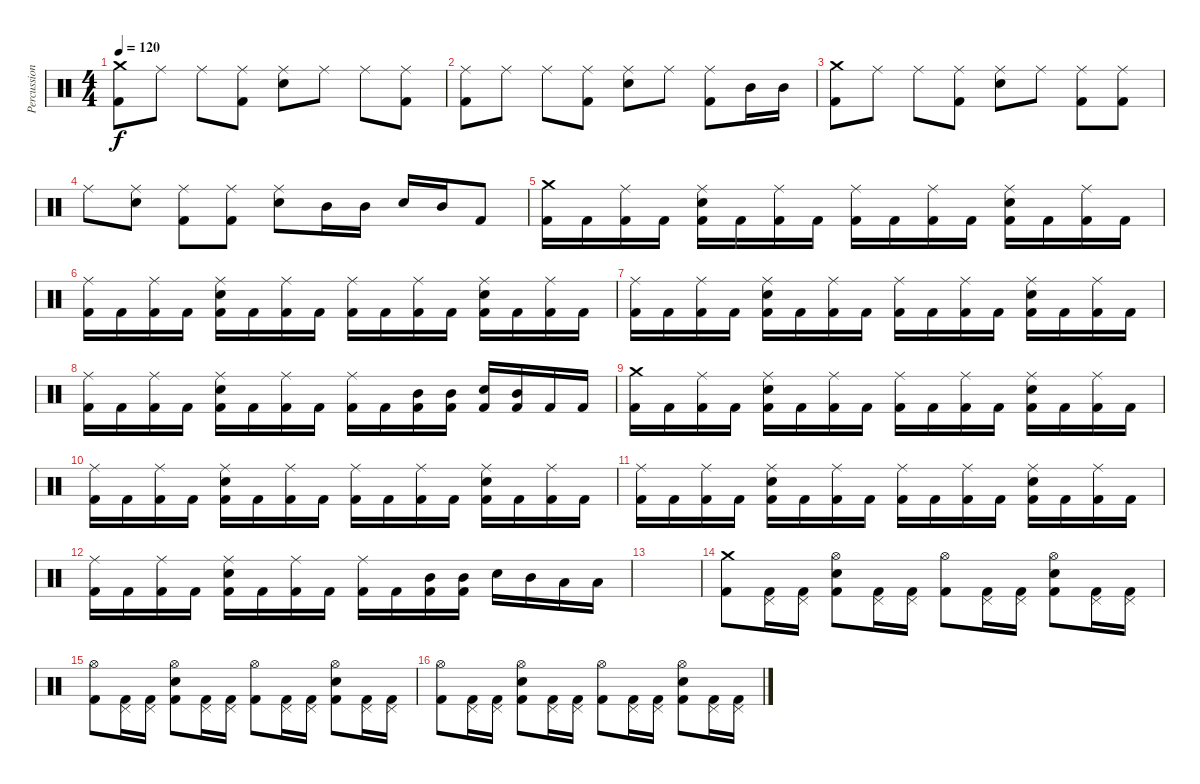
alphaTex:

\track ("Percussions" "Percussion") {instrument percussion}
\staff {score}
\articulation defaults
\ts (4 4)
\tempo 120
\clef neutral
\ks c
("Crash medium (hit)" "Kick (hit) 2").8{dy f} "Ride (middle)".8 "Ride (middle)".8 ("Ride (middle)" "Kick (hit) 2").8 ("Ride (middle)" "Electric Snare (hit)").8 "Ride (middle)".8 "Ride (middle)".8 ("Ride (middle)" "Kick (hit) 2").8 |
("Ride (middle)" "Kick (hit) 2").8 "Ride (middle)".8 "Ride (middle)".8 ("Ride (middle)" "Kick (hit) 2").8 ("Ride (middle)" "Electric Snare (hit)").8 "Ride (middle)".8 ("Ride (middle)" "Kick (hit) 2").8 "Mid Tom (hit)".16 "Mid Tom (hit)".16 |
("Crash medium (hit)" "Kick (hit) 2").8 "Ride (middle)".8 "Ride (middle)".8 ("Ride (middle)" "Kick (hit) 2").8 ("Ride (middle)" "Electric Snare (hit)").8 "Ride (middle)".8 ("Ride (middle)" "Kick (hit) 2").8 ("Ride (middle)" "Kick (hit) 2").8 |
"Ride (middle)".8 ("Ride (middle)" "Electric Snare (hit)").8 ("Ride (middle)" "Kick (hit) 2").8 ("Ride (middle)" "Kick (hit) 2").8 ("Ride (middle)" "Electric Snare (hit)").8 "Mid Tom (hit)".16 "Mid Tom (hit)".16 "Electric Snare (hit)".16 "Mid Tom (hit)".16 "Kick (hit) 2".8 |
("Kick (hit) 2" "Crash medium (hit)").16 "Kick (hit) 2".16 ("Kick (hit) 2" "Ride (middle)").16 "Kick (hit) 2".16 ("Kick (hit) 2" "Electric Snare (hit)" "Ride (middle)").16 "Kick (hit) 2".16 ("Kick (hit) 2" "Ride (middle)").16 "Kick (hit) 2".16 ("Kick (hit) 2" "Ride (middle)").16 "Kick (hit) 2".16 ("Kick (hit) 2" "Ride (middle)").16 "Kick (hit) 2".16 ("Kick (hit) 2" "Electric Snare (hit)" "Ride (middle)").16 "Kick (hit) 2".16 ("Kick (hit) 2" "Ride (middle)").16 "Kick (hit) 2".16 |
("Kick (hit) 2" "Ride (middle)").16 "Kick (hit) 2".16 ("Kick (hit) 2" "Ride (middle)").16 "Kick (hit) 2".16 ("Kick (hit) 2" "Electric Snare (hit)" "Ride (middle)").16 "Kick (hit) 2".16 ("Kick (hit) 2" "Ride (middle)").16 "Kick (hit) 2".16 ("Kick (hit) 2" "Ride (middle)").16 "Kick (hit) 2".16 ("Kick (hit) 2" "Ride (middle)").16 "Kick (hit) 2".16 ("Kick (hit) 2" "Electric Snare (hit)" "Ride (middle)").16 "Kick (hit) 2".16 ("Kick (hit) 2" "Ride (middle)").16 "Kick (hit) 2".16 |
("Kick (hit) 2" "Ride (middle)").16 "Kick (hit) 2".16 ("Kick (hit) 2" "Ride (middle)").16 "Kick (hit) 2".16 ("Kick (hit) 2" "Electric Snare (hit)" "Ride (middle)").16 "Kick (hit) 2".16 ("Kick (hit) 2" "Ride (middle)").16 "Kick (hit) 2".16 ("Kick (hit) 2" "Ride (middle)").16 "Kick (hit) 2".16 ("Kick (hit) 2" "Ride (middle)").16 "Kick (hit) 2".16 ("Kick (hit) 2" "Electric Snare (hit)" "Ride (middle)").16 "Kick (hit) 2".16 ("Kick (hit) 2" "Ride (middle)").16 "Kick (hit) 2".16 |
("Kick (hit) 2" "Ride (middle)").16 "Kick (hit) 2".16 ("Kick (hit) 2" "Ride (middle)").16 "Kick (hit) 2".16 ("Kick (hit) 2" "Electric Snare (hit)" "Ride (middle)").16 "Kick (hit) 2".16 ("Kick (hit) 2" "Ride (middle)").16 "Kick (hit) 2".16 ("Kick (hit) 2" "Ride (middle)").16 "Kick (hit) 2".16 ("Kick (hit) 2" "Mid Tom (hit)").16 ("Kick (hit) 2" "Mid Tom (hit)").16 ("Kick (hit) 2" "Electric Snare (hit)").16 ("Kick (hit) 2" "Mid Tom (hit)").16 "Kick (hit) 2".16 "Kick (hit) 2".16 |
("Kick (hit) 2" "Crash medium (hit)").16 "Kick (hit) 2".16 ("Kick (hit) 2" "Ride (middle)").16 "Kick (hit) 2".16 ("Kick (hit) 2" "Electric Snare (hit)" "Ride (middle)").16 "Kick (hit) 2".16 ("Kick (hit) 2" "Ride (middle)").16 "Kick (hit) 2".16 ("Kick (hit) 2" "Ride (middle)").16 "Kick (hit) 2".16 ("Kick (hit) 2" "Ride (middle)").16 "Kick (hit) 2".16 ("Kick (hit) 2" "Electric Snare (hit)" "Ride (middle)").16 "Kick (hit) 2".16 ("Kick (hit) 2" "Ride (middle)").16 "Kick (hit) 2".16 |
("Kick (hit) 2" "Ride (middle)").16 "Kick (hit) 2".16 ("Kick (hit) 2" "Ride (middle)").16 "Kick (hit) 2".16 ("Kick (hit) 2" "Electric Snare (hit)" "Ride (middle)").16 "Kick (hit) 2".16 ("Kick (hit) 2" "Ride (middle)").16 "Kick (hit) 2".16 ("Kick (hit) 2" "Ride (middle)").16 "Kick (hit) 2".16 ("Kick (hit) 2" "Ride (middle)").16 "Kick (hit) 2".16 ("Kick (hit) 2" "Electric Snare (hit)" "Ride (middle)").16 "Kick (hit) 2".16 ("Kick (hit) 2" "Ride (middle)").16 "Kick (hit) 2".16 |
("Kick (hit) 2" "Ride (middle)").16 "Kick (hit) 2".16 ("Kick (hit) 2" "Ride (middle)").16 "Kick (hit) 2".16 ("Kick (hit) 2" "Electric Snare (hit)" "Ride (middle)").16 "Kick (hit) 2".16 ("Kick (hit) 2" "Ride (middle)").16 "Kick (hit) 2".16 ("Kick (hit) 2" "Ride (middle)").16 "Kick (hit) 2".16 ("Kick (hit) 2" "Ride (middle)").16 "Kick (hit) 2".16 ("Kick (hit) 2" "Electric Snare (hit)" "Ride (middle)").16 "Kick (hit) 2".16 ("Kick (hit) 2" "Ride (middle)").16 "Kick (hit) 2".16 |
("Kick (hit) 2" "Ride (middle)").16 "Kick (hit) 2".16 ("Kick (hit) 2" "Ride (middle)").16 "Kick (hit) 2".16 ("Kick (hit) 2" "Electric Snare (hit)" "Ride (middle)").16 "Kick (hit) 2".16 ("Kick (hit) 2" "Ride (middle)").16 "Kick (hit) 2".16 ("Kick (hit) 2" "Ride (middle)").16 "Kick (hit) 2".16 ("Kick (hit) 2" "Mid Tom (hit)").16 ("Kick (hit) 2" "Mid Tom (hit)").16 "Electric Snare (hit)".16 "Mid Tom (hit)".16 "Low Tom (hit)".16 "Low Tom (hit)".16 |
|
("Kick (hit) 2" "Crash medium (hit)").8 ("Kick (hit) 2" "Pedal Hi-Hat (hit)").16 ("Kick (hit) 2" "Pedal Hi-Hat (hit)").16 ("Kick (hit) 2" "Electric Snare (hit)" "Hi-Hat (open)").8 ("Kick (hit) 2" "Pedal Hi-Hat (hit)").16 ("Kick (hit) 2" "Pedal Hi-Hat (hit)").16 ("Kick (hit) 2" "Hi-Hat (open)").8 ("Kick (hit) 2" "Pedal Hi-Hat (hit)").16 ("Kick (hit) 2" "Pedal Hi-Hat (hit)").16 ("Kick (hit) 2" "Electric Snare (hit)" "Hi-Hat (open)").8 ("Kick (hit) 2" "Pedal Hi-Hat (hit)").16 ("Kick (hit) 2" "Pedal Hi-Hat (hit)").16 |
("Kick (hit) 2" "Hi-Hat (open)").8 ("Kick (hit) 2" "Pedal Hi-Hat (hit)").16 ("Kick (hit) 2" "Pedal Hi-Hat (hit)").16 ("Kick (hit) 2" "Electric Snare (hit)" "Hi-Hat (open)").8 ("Kick (hit) 2" "Pedal Hi-Hat (hit)").16 ("Kick (hit) 2" "Pedal Hi-Hat (hit)").16 ("Kick (hit) 2" "Hi-Hat (open)").8 ("Kick (hit) 2" "Pedal Hi-Hat (hit)").16 ("Kick (hit) 2" "Pedal Hi-Hat (hit)").16 ("Kick (hit) 2" "Electric Snare (hit)" "Hi-Hat (open)").8 ("Kick (hit) 2" "Pedal Hi-Hat (hit)").16 ("Kick (hit) 2" "Pedal Hi-Hat (hit)").16 |
("Kick (hit) 2" "Hi-Hat (open)").8 ("Kick (hit) 2" "Pedal Hi-Hat (hit)").16 ("Kick (hit) 2" "Pedal Hi-Hat (hit)").16 ("Kick (hit) 2" "Electric Snare (hit)" "Hi-Hat (open)").8 ("Kick (hit) 2" "Pedal Hi-Hat (hit)").16 ("Kick (hit) 2" "Pedal Hi-Hat (hit)").16 ("Kick (hit) 2" "Hi-Hat (open)").8 ("Kick (hit) 2" "Pedal Hi-Hat (hit)").16 ("Kick (hit) 2" "Pedal Hi-Hat (hit)").16 ("Kick (hit) 2" "Electric Snare (hit)" "Hi-Hat (open)").8 ("Kick (hit) 2" "Pedal Hi-Hat (hit)").16 ("Kick (hit) 2" "Pedal Hi-Hat (hit)").16
